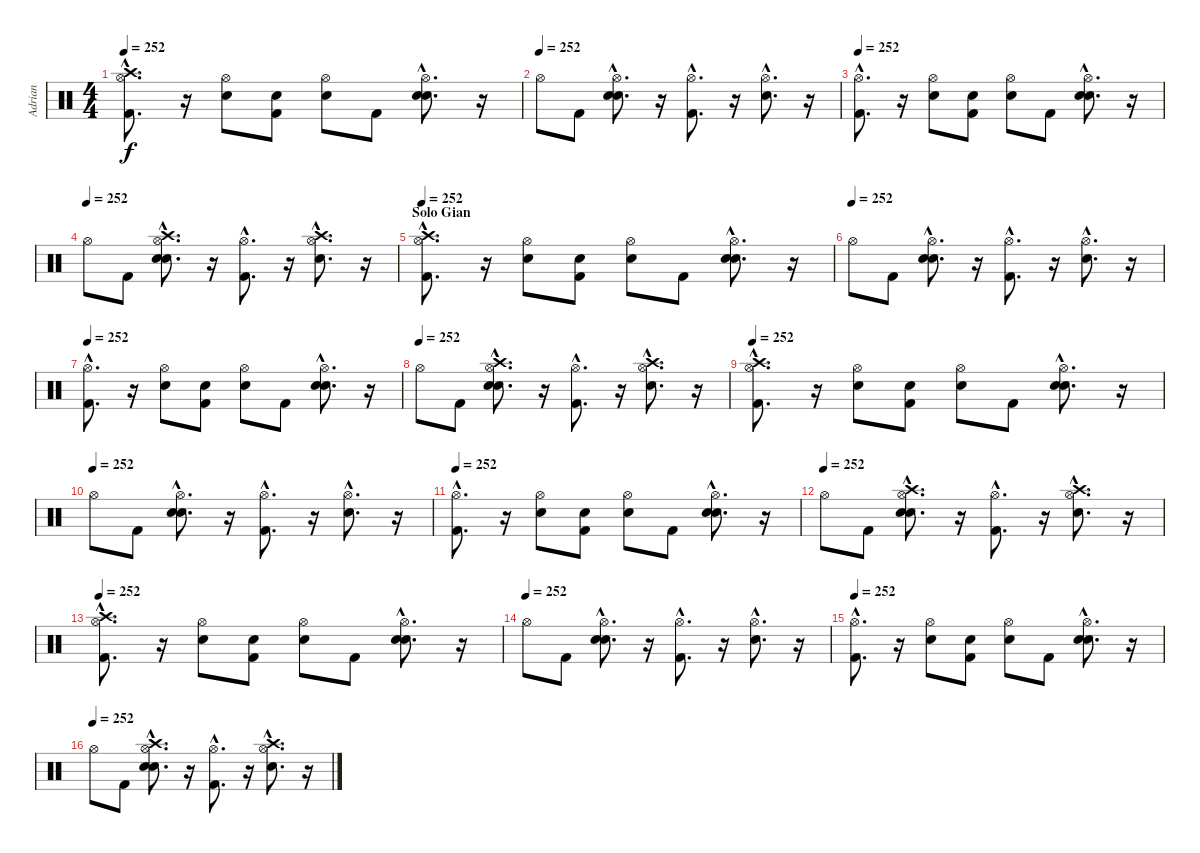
\track ("Adrian" "Adrian") {instrument percussion}
\staff {score}
\articulation defaults
\ts (4 4)
\tempo 252
\clef neutral
\ks c
("Kick (hit) 2"{hac} "Hi-Hat (open)"{hac} "Crash high (hit)"{hac}).8{d dy f} r.16 ("Snare (hit) 2" "Hi-Hat (open)").8 ("Snare (hit)" "Kick (hit) 2").8 ("Snare (hit)" "Hi-Hat (open)").8 "Kick (hit) 2".8 ("Snare (hit)"{hac} "Snare (hit) 2"{hac} "Hi-Hat (open)"{hac}).8{d} r.16 |
\tempo (252)
"Hi-Hat (open)".8 "Kick (hit) 2".8 ("Snare (hit)"{hac} "Snare (hit) 2"{hac} "Hi-Hat (open)"{hac}).8{d} r.16 ("Kick (hit) 2"{hac} "Hi-Hat (open)"{hac}).8{d} r.16 ("Snare (hit) 2"{hac} "Hi-Hat (open)"{hac}).8{d} r.16 |
\tempo 252
("Kick (hit) 2"{hac} "Hi-Hat (open)"{hac}).8{d} r.16 ("Snare (hit) 2" "Hi-Hat (open)").8 ("Snare (hit)" "Kick (hit) 2").8 ("Snare (hit)" "Hi-Hat (open)").8 "Kick (hit) 2".8 ("Snare (hit)"{hac} "Snare (hit) 2"{hac} "Hi-Hat (open)"{hac}).8{d} r.16 |
\tempo (252)
"Hi-Hat (open)".8 "Kick (hit) 2".8 ("Snare (hit)"{hac} "Snare (hit) 2"{hac} "Hi-Hat (open)"{hac} "Crash high (hit)"{hac}).8{d} r.16 ("Kick (hit) 2"{hac} "Hi-Hat (open)"{hac}).8{d} r.16 ("Snare (hit) 2"{hac} "Hi-Hat (open)"{hac} "Crash high (hit)"{hac}).8{d} r.16 |
\section ("" "Solo Gian")
\tempo 200
\tempo 252
("Kick (hit) 2"{hac} "Hi-Hat (open)"{hac} "Crash high (hit)"{hac}).8{d} r.16 ("Snare (hit) 2" "Hi-Hat (open)").8 ("Snare (hit)" "Kick (hit) 2").8 ("Snare (hit)" "Hi-Hat (open)").8 "Kick (hit) 2".8 ("Snare (hit)"{hac} "Snare (hit) 2"{hac} "Hi-Hat (open)"{hac}).8{d} r.16 |
\tempo (252)
"Hi-Hat (open)".8 "Kick (hit) 2".8 ("Snare (hit)"{hac} "Snare (hit) 2"{hac} "Hi-Hat (open)"{hac}).8{d} r.16 ("Kick (hit) 2"{hac} "Hi-Hat (open)"{hac}).8{d} r.16 ("Snare (hit) 2"{hac} "Hi-Hat (open)"{hac}).8{d} r.16 |
\tempo 252
("Kick (hit) 2"{hac} "Hi-Hat (open)"{hac}).8{d} r.16 ("Snare (hit) 2" "Hi-Hat (open)").8 ("Snare (hit)" "Kick (hit) 2").8 ("Snare (hit)" "Hi-Hat (open)").8 "Kick (hit) 2".8 ("Snare (hit)"{hac} "Snare (hit) 2"{hac} "Hi-Hat (open)"{hac}).8{d} r.16 |
\tempo (252)
"Hi-Hat (open)".8 "Kick (hit) 2".8 ("Snare (hit)"{hac} "Snare (hit) 2"{hac} "Hi-Hat (open)"{hac} "Crash high (hit)"{hac}).8{d} r.16 ("Kick (hit) 2"{hac} "Hi-Hat (open)"{hac}).8{d} r.16 ("Snare (hit) 2"{hac} "Hi-Hat (open)"{hac} "Crash high (hit)"{hac}).8{d} r.16 |
\tempo 252
("Kick (hit) 2"{hac} "Hi-Hat (open)"{hac} "Crash high (hit)"{hac}).8{d} r.16 ("Snare (hit) 2" "Hi-Hat (open)").8 ("Snare (hit)" "Kick (hit) 2").8 ("Snare (hit)" "Hi-Hat (open)").8 "Kick (hit) 2".8 ("Snare (hit)"{hac} "Snare (hit) 2"{hac} "Hi-Hat (open)"{hac}).8{d} r.16 |
\tempo (252)
"Hi-Hat (open)".8 "Kick (hit) 2".8 ("Snare (hit)"{hac} "Snare (hit) 2"{hac} "Hi-Hat (open)"{hac}).8{d} r.16 ("Kick (hit) 2"{hac} "Hi-Hat (open)"{hac}).8{d} r.16 ("Snare (hit) 2"{hac} "Hi-Hat (open)"{hac}).8{d} r.16 |
\tempo 252
("Kick (hit) 2"{hac} "Hi-Hat (open)"{hac}).8{d} r.16 ("Snare (hit) 2" "Hi-Hat (open)").8 ("Snare (hit)" "Kick (hit) 2").8 ("Snare (hit)" "Hi-Hat (open)").8 "Kick (hit) 2".8 ("Snare (hit)"{hac} "Snare (hit) 2"{hac} "Hi-Hat (open)"{hac}).8{d} r.16 |
\tempo (252)
"Hi-Hat (open)".8 "Kick (hit) 2".8 ("Snare (hit)"{hac} "Snare (hit) 2"{hac} "Hi-Hat (open)"{hac} "Crash high (hit)"{hac}).8{d} r.16 ("Kick (hit) 2"{hac} "Hi-Hat (open)"{hac}).8{d} r.16 ("Snare (hit) 2"{hac} "Hi-Hat (open)"{hac} "Crash high (hit)"{hac}).8{d} r.16 |
\tempo 252
("Kick (hit) 2"{hac} "Hi-Hat (open)"{hac} "Crash high (hit)"{hac}).8{d} r.16 ("Snare (hit) 2" "Hi-Hat (open)").8 ("Snare (hit)" "Kick (hit) 2").8 ("Snare (hit)" "Hi-Hat (open)").8 "Kick (hit) 2".8 ("Snare (hit)"{hac} "Snare (hit) 2"{hac} "Hi-Hat (open)"{hac}).8{d} r.16 |
\tempo (252)
"Hi-Hat (open)".8 "Kick (hit) 2".8 ("Snare (hit)"{hac} "Snare (hit) 2"{hac} "Hi-Hat (open)"{hac}).8{d} r.16 ("Kick (hit) 2"{hac} "Hi-Hat (open)"{hac}).8{d} r.16 ("Snare (hit) 2"{hac} "Hi-Hat (open)"{hac}).8{d} r.16 |
\tempo 252
("Kick (hit) 2"{hac} "Hi-Hat (open)"{hac}).8{d} r.16 ("Snare (hit) 2" "Hi-Hat (open)").8 ("Snare (hit)" "Kick (hit) 2").8 ("Snare (hit)" "Hi-Hat (open)").8 "Kick (hit) 2".8 ("Snare (hit)"{hac} "Snare (hit) 2"{hac} "Hi-Hat (open)"{hac}).8{d} r.16 |
\tempo (252)
"Hi-Hat (open)".8 "Kick (hit) 2".8 ("Snare (hit)"{hac} "Snare (hit) 2"{hac} "Hi-Hat (open)"{hac} "Crash high (hit)"{hac}).8{d} r.16 ("Kick (hit) 2"{hac} "Hi-Hat (open)"{hac}).8{d} r.16 ("Snare (hit) 2"{hac} "Hi-Hat (open)"{hac} "Crash high (hit)"{hac}).8{d} r.16
